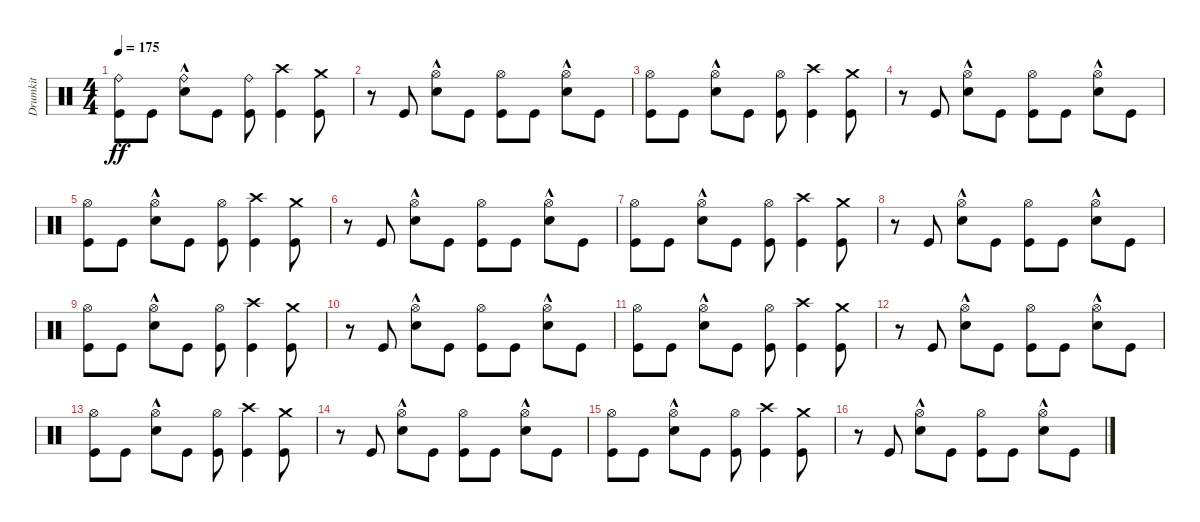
\track ("Drumkit" "Drumkit") {instrument percussion}
\staff {score}
\articulation defaults
\ts (4 4)
\tempo 175
\clef neutral
\ks c
("Kick (hit)" "Ride (bell)").8{dy ff} "Kick (hit)".8 ("Snare (hit) 2"{hac} "Ride (bell)").8 "Kick (hit)".8 ("Kick (hit)" "Ride (bell)").8 ("Kick (hit)" "Crash high (hit)").4 ("Kick (hit)" "Crash medium (hit)").8 |
r.8 "Kick (hit)".8 ("Snare (hit) 2"{hac} "Hi-Hat (open)").8 "Kick (hit)".8 ("Kick (hit)" "Hi-Hat (open)").8 "Kick (hit)".8 ("Hi-Hat (open)" "Snare (hit) 2"{hac}).8 "Kick (hit)".8 |
("Kick (hit)" "Hi-Hat (open)").8 "Kick (hit)".8 ("Snare (hit) 2"{hac} "Hi-Hat (open)").8 "Kick (hit)".8 ("Kick (hit)" "Hi-Hat (open)").8 ("Kick (hit)" "Crash high (hit)").4 ("Kick (hit)" "Crash medium (hit)").8 |
r.8 "Kick (hit)".8 ("Snare (hit) 2"{hac} "Hi-Hat (open)").8 "Kick (hit)".8 ("Kick (hit)" "Hi-Hat (open)").8 "Kick (hit)".8 ("Hi-Hat (open)" "Snare (hit) 2"{hac}).8 "Kick (hit)".8 |
("Kick (hit)" "Hi-Hat (open)").8 "Kick (hit)".8 ("Snare (hit) 2"{hac} "Hi-Hat (open)").8 "Kick (hit)".8 ("Kick (hit)" "Hi-Hat (open)").8 ("Kick (hit)" "Crash high (hit)").4 ("Kick (hit)" "Crash medium (hit)").8 |
r.8 "Kick (hit)".8 ("Snare (hit) 2"{hac} "Hi-Hat (open)").8 "Kick (hit)".8 ("Kick (hit)" "Hi-Hat (open)").8 "Kick (hit)".8 ("Hi-Hat (open)" "Snare (hit) 2"{hac}).8 "Kick (hit)".8 |
("Kick (hit)" "Hi-Hat (open)").8 "Kick (hit)".8 ("Snare (hit) 2"{hac} "Hi-Hat (open)").8 "Kick (hit)".8 ("Kick (hit)" "Hi-Hat (open)").8 ("Kick (hit)" "Crash high (hit)").4 ("Kick (hit)" "Crash medium (hit)").8 |
r.8 "Kick (hit)".8 ("Snare (hit) 2"{hac} "Hi-Hat (open)").8 "Kick (hit)".8 ("Kick (hit)" "Hi-Hat (open)").8 "Kick (hit)".8 ("Hi-Hat (open)" "Snare (hit) 2"{hac}).8 "Kick (hit)".8 |
("Kick (hit)" "Hi-Hat (open)").8 "Kick (hit)".8 ("Snare (hit) 2"{hac} "Hi-Hat (open)").8 "Kick (hit)".8 ("Kick (hit)" "Hi-Hat (open)").8 ("Kick (hit)" "Crash high (hit)").4 ("Kick (hit)" "Crash medium (hit)").8 |
r.8 "Kick (hit)".8 ("Snare (hit) 2"{hac} "Hi-Hat (open)").8 "Kick (hit)".8 ("Kick (hit)" "Hi-Hat (open)").8 "Kick (hit)".8 ("Hi-Hat (open)" "Snare (hit) 2"{hac}).8 "Kick (hit)".8 |
("Kick (hit)" "Hi-Hat (open)").8 "Kick (hit)".8 ("Snare (hit) 2"{hac} "Hi-Hat (open)").8 "Kick (hit)".8 ("Kick (hit)" "Hi-Hat (open)").8 ("Kick (hit)" "Crash high (hit)").4 ("Kick (hit)" "Crash medium (hit)").8 |
r.8 "Kick (hit)".8 ("Snare (hit) 2"{hac} "Hi-Hat (open)").8 "Kick (hit)".8 ("Kick (hit)" "Hi-Hat (open)").8 "Kick (hit)".8 ("Hi-Hat (open)" "Snare (hit) 2"{hac}).8 "Kick (hit)".8 |
("Kick (hit)" "Hi-Hat (open)").8 "Kick (hit)".8 ("Snare (hit) 2"{hac} "Hi-Hat (open)").8 "Kick (hit)".8 ("Kick (hit)" "Hi-Hat (open)").8 ("Kick (hit)" "Crash high (hit)").4 ("Kick (hit)" "Crash medium (hit)").8 |
r.8 "Kick (hit)".8 ("Snare (hit) 2"{hac} "Hi-Hat (open)").8 "Kick (hit)".8 ("Kick (hit)" "Hi-Hat (open)").8 "Kick (hit)".8 ("Hi-Hat (open)" "Snare (hit) 2"{hac}).8 "Kick (hit)".8 |
("Kick (hit)" "Hi-Hat (open)").8 "Kick (hit)".8 ("Snare (hit) 2"{hac} "Hi-Hat (open)").8 "Kick (hit)".8 ("Kick (hit)" "Hi-Hat (open)").8 ("Kick (hit)" "Crash high (hit)").4 ("Kick (hit)" "Crash medium (hit)").8 |
r.8 "Kick (hit)".8 ("Snare (hit) 2"{hac} "Hi-Hat (open)").8 "Kick (hit)".8 ("Kick (hit)" "Hi-Hat (open)").8 "Kick (hit)".8 ("Hi-Hat (open)" "Snare (hit) 2"{hac}).8 "Kick (hit)".8
